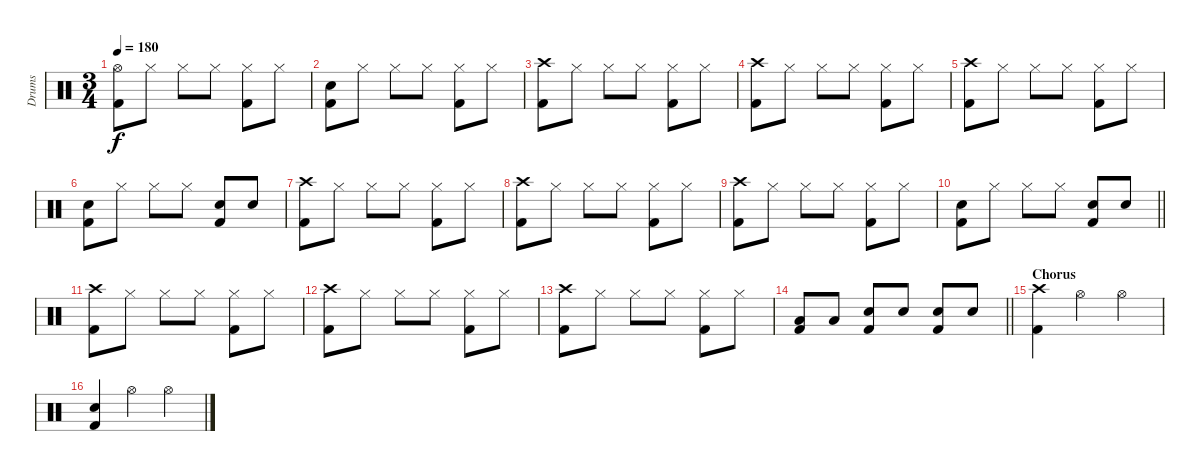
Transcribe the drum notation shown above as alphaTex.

\track ("Drums" "Drums") {instrument percussion}
\staff {score}
\articulation defaults
\ts (3 4)
\tempo 180
\clef neutral
\ks c
("Hi-Hat (open)" "Kick (hit) 2").8{dy f} "Hi-Hat (closed)".8 "Hi-Hat (closed)".8 "Hi-Hat (closed)".8 ("Hi-Hat (closed)" "Kick (hit) 2").8 "Hi-Hat (closed)".8 |
("Snare (hit) 2" "Kick (hit) 2").8 "Hi-Hat (closed)".8 "Hi-Hat (closed)".8 "Hi-Hat (closed)".8 ("Hi-Hat (closed)" "Kick (hit) 2").8 "Hi-Hat (closed)".8 |
("Crash high (hit)" "Kick (hit) 2").8 "Hi-Hat (closed)".8 "Hi-Hat (closed)".8 "Hi-Hat (closed)".8 ("Hi-Hat (closed)" "Kick (hit) 2").8 "Hi-Hat (closed)".8 |
("Crash high (hit)" "Kick (hit) 2").8 "Hi-Hat (closed)".8 "Hi-Hat (closed)".8 "Hi-Hat (closed)".8 ("Hi-Hat (closed)" "Kick (hit) 2").8 "Hi-Hat (closed)".8 |
("Crash high (hit)" "Kick (hit) 2").8 "Hi-Hat (closed)".8 "Hi-Hat (closed)".8 "Hi-Hat (closed)".8 ("Hi-Hat (closed)" "Kick (hit) 2").8 "Hi-Hat (closed)".8 |
("Snare (hit) 2" "Kick (hit) 2").8 "Hi-Hat (closed)".8 "Hi-Hat (closed)".8 "Hi-Hat (closed)".8 ("Snare (hit) 2" "Kick (hit) 2").8 "Snare (hit) 2".8 |
("Crash high (hit)" "Kick (hit) 2").8 "Hi-Hat (closed)".8 "Hi-Hat (closed)".8 "Hi-Hat (closed)".8 ("Hi-Hat (closed)" "Kick (hit) 2").8 "Hi-Hat (closed)".8 |
("Crash high (hit)" "Kick (hit) 2").8 "Hi-Hat (closed)".8 "Hi-Hat (closed)".8 "Hi-Hat (closed)".8 ("Hi-Hat (closed)" "Kick (hit) 2").8 "Hi-Hat (closed)".8 |
("Crash high (hit)" "Kick (hit) 2").8 "Hi-Hat (closed)".8 "Hi-Hat (closed)".8 "Hi-Hat (closed)".8 ("Hi-Hat (closed)" "Kick (hit) 2").8 "Hi-Hat (closed)".8 |
\barLineRight lightlight
("Snare (hit) 2" "Kick (hit) 2").8 "Hi-Hat (closed)".8 "Hi-Hat (closed)".8 "Hi-Hat (closed)".8 ("Snare (hit) 2" "Kick (hit) 2").8 "Snare (hit) 2".8 |
("Crash high (hit)" "Kick (hit) 2").8 "Hi-Hat (closed)".8 "Hi-Hat (closed)".8 "Hi-Hat (closed)".8 ("Hi-Hat (closed)" "Kick (hit) 2").8 "Hi-Hat (closed)".8 |
("Crash high (hit)" "Kick (hit) 2").8 "Hi-Hat (closed)".8 "Hi-Hat (closed)".8 "Hi-Hat (closed)".8 ("Hi-Hat (closed)" "Kick (hit) 2").8 "Hi-Hat (closed)".8 |
("Crash high (hit)" "Kick (hit) 2").8 "Hi-Hat (closed)".8 "Hi-Hat (closed)".8 "Hi-Hat (closed)".8 ("Hi-Hat (closed)" "Kick (hit) 2").8 "Hi-Hat (closed)".8 |
\barLineRight lightlight
("Low Floor Tom (hit)" "Kick (hit) 2").8 "Low Floor Tom (hit)".8 ("Snare (hit) 2" "Kick (hit) 2").8 "Snare (hit) 2".8 ("Snare (hit) 2" "Kick (hit) 2").8 "Snare (hit) 2".8 |
\section ("" "Chorus")
("Crash high (hit)" "Kick (hit) 2").4 "Hi-Hat (open)".4 "Hi-Hat (open)".4 |
("Snare (hit) 2" "Kick (hit) 2").4 "Hi-Hat (open)".4 "Hi-Hat (open)".4
